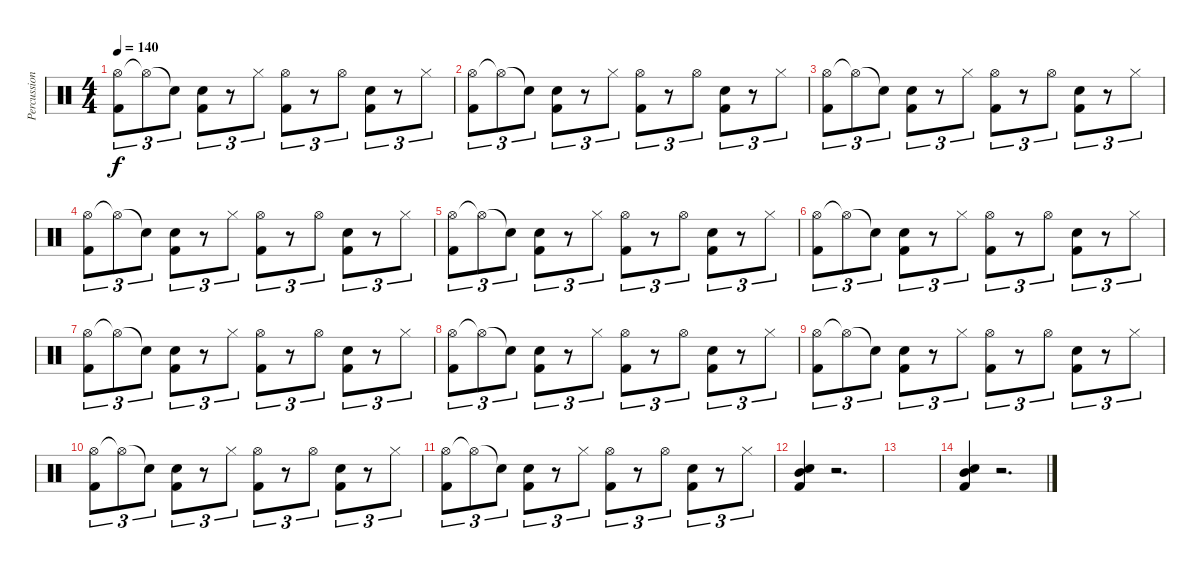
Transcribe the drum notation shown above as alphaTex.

\track ("Percussion" "Percussion") {instrument percussion}
\staff {score}
\articulation defaults
\ts (4 4)
\tempo 140
\clef neutral
\ks c
("Hi-Hat (open)" "Kick (hit) 2").8{tu (3 2) dy f} "Hi-Hat (open)"{t}.8{tu (3 2)} "Snare (hit)"{t}.8{tu (3 2)} ("Snare (hit) 2" "Kick (hit) 2").8{tu (3 2)} r.8{tu (3 2)} "Hi-Hat (closed)".8{tu (3 2)} ("Hi-Hat (open)" "Kick (hit) 2").8{tu (3 2)} r.8{tu (3 2)} "Hi-Hat (open)".8{tu (3 2)} ("Snare (hit) 2" "Kick (hit) 2").8{tu (3 2)} r.8{tu (3 2)} "Hi-Hat (closed)".8{tu (3 2)} |
("Hi-Hat (open)" "Kick (hit) 2").8{tu (3 2)} "Hi-Hat (open)"{t}.8{tu (3 2)} "Snare (hit)"{t}.8{tu (3 2)} ("Snare (hit) 2" "Kick (hit) 2").8{tu (3 2)} r.8{tu (3 2)} "Hi-Hat (closed)".8{tu (3 2)} ("Hi-Hat (open)" "Kick (hit) 2").8{tu (3 2)} r.8{tu (3 2)} "Hi-Hat (open)".8{tu (3 2)} ("Snare (hit) 2" "Kick (hit) 2").8{tu (3 2)} r.8{tu (3 2)} "Hi-Hat (closed)".8{tu (3 2)} |
("Hi-Hat (open)" "Kick (hit) 2").8{tu (3 2)} "Hi-Hat (open)"{t}.8{tu (3 2)} "Snare (hit)"{t}.8{tu (3 2)} ("Snare (hit) 2" "Kick (hit) 2").8{tu (3 2)} r.8{tu (3 2)} "Hi-Hat (closed)".8{tu (3 2)} ("Hi-Hat (open)" "Kick (hit) 2").8{tu (3 2)} r.8{tu (3 2)} "Hi-Hat (open)".8{tu (3 2)} ("Snare (hit) 2" "Kick (hit) 2").8{tu (3 2)} r.8{tu (3 2)} "Hi-Hat (closed)".8{tu (3 2)} |
("Hi-Hat (open)" "Kick (hit) 2").8{tu (3 2)} "Hi-Hat (open)"{t}.8{tu (3 2)} "Snare (hit)"{t}.8{tu (3 2)} ("Snare (hit) 2" "Kick (hit) 2").8{tu (3 2)} r.8{tu (3 2)} "Hi-Hat (closed)".8{tu (3 2)} ("Hi-Hat (open)" "Kick (hit) 2").8{tu (3 2)} r.8{tu (3 2)} "Hi-Hat (open)".8{tu (3 2)} ("Snare (hit) 2" "Kick (hit) 2").8{tu (3 2)} r.8{tu (3 2)} "Hi-Hat (closed)".8{tu (3 2)} |
("Hi-Hat (open)" "Kick (hit) 2").8{tu (3 2)} "Hi-Hat (open)"{t}.8{tu (3 2)} "Snare (hit)"{t}.8{tu (3 2)} ("Snare (hit) 2" "Kick (hit) 2").8{tu (3 2)} r.8{tu (3 2)} "Hi-Hat (closed)".8{tu (3 2)} ("Hi-Hat (open)" "Kick (hit) 2").8{tu (3 2)} r.8{tu (3 2)} "Hi-Hat (open)".8{tu (3 2)} ("Snare (hit) 2" "Kick (hit) 2").8{tu (3 2)} r.8{tu (3 2)} "Hi-Hat (closed)".8{tu (3 2)} |
("Hi-Hat (open)" "Kick (hit) 2").8{tu (3 2)} "Hi-Hat (open)"{t}.8{tu (3 2)} "Snare (hit)"{t}.8{tu (3 2)} ("Snare (hit) 2" "Kick (hit) 2").8{tu (3 2)} r.8{tu (3 2)} "Hi-Hat (closed)".8{tu (3 2)} ("Hi-Hat (open)" "Kick (hit) 2").8{tu (3 2)} r.8{tu (3 2)} "Hi-Hat (open)".8{tu (3 2)} ("Snare (hit) 2" "Kick (hit) 2").8{tu (3 2)} r.8{tu (3 2)} "Hi-Hat (closed)".8{tu (3 2)} |
("Hi-Hat (open)" "Kick (hit) 2").8{tu (3 2)} "Hi-Hat (open)"{t}.8{tu (3 2)} "Snare (hit)"{t}.8{tu (3 2)} ("Snare (hit) 2" "Kick (hit) 2").8{tu (3 2)} r.8{tu (3 2)} "Hi-Hat (closed)".8{tu (3 2)} ("Hi-Hat (open)" "Kick (hit) 2").8{tu (3 2)} r.8{tu (3 2)} "Hi-Hat (open)".8{tu (3 2)} ("Snare (hit) 2" "Kick (hit) 2").8{tu (3 2)} r.8{tu (3 2)} "Hi-Hat (closed)".8{tu (3 2)} |
("Hi-Hat (open)" "Kick (hit) 2").8{tu (3 2)} "Hi-Hat (open)"{t}.8{tu (3 2)} "Snare (hit)"{t}.8{tu (3 2)} ("Snare (hit) 2" "Kick (hit) 2").8{tu (3 2)} r.8{tu (3 2)} "Hi-Hat (closed)".8{tu (3 2)} ("Hi-Hat (open)" "Kick (hit) 2").8{tu (3 2)} r.8{tu (3 2)} "Hi-Hat (open)".8{tu (3 2)} ("Snare (hit) 2" "Kick (hit) 2").8{tu (3 2)} r.8{tu (3 2)} "Hi-Hat (closed)".8{tu (3 2)} |
("Hi-Hat (open)" "Kick (hit) 2").8{tu (3 2)} "Hi-Hat (open)"{t}.8{tu (3 2)} "Snare (hit)"{t}.8{tu (3 2)} ("Snare (hit) 2" "Kick (hit) 2").8{tu (3 2)} r.8{tu (3 2)} "Hi-Hat (closed)".8{tu (3 2)} ("Hi-Hat (open)" "Kick (hit) 2").8{tu (3 2)} r.8{tu (3 2)} "Hi-Hat (open)".8{tu (3 2)} ("Snare (hit) 2" "Kick (hit) 2").8{tu (3 2)} r.8{tu (3 2)} "Hi-Hat (closed)".8{tu (3 2)} |
("Hi-Hat (open)" "Kick (hit) 2").8{tu (3 2)} "Hi-Hat (open)"{t}.8{tu (3 2)} "Snare (hit)"{t}.8{tu (3 2)} ("Snare (hit) 2" "Kick (hit) 2").8{tu (3 2)} r.8{tu (3 2)} "Hi-Hat (closed)".8{tu (3 2)} ("Hi-Hat (open)" "Kick (hit) 2").8{tu (3 2)} r.8{tu (3 2)} "Hi-Hat (open)".8{tu (3 2)} ("Snare (hit) 2" "Kick (hit) 2").8{tu (3 2)} r.8{tu (3 2)} "Hi-Hat (closed)".8{tu (3 2)} |
("Hi-Hat (open)" "Kick (hit) 2").8{tu (3 2)} "Hi-Hat (open)"{t}.8{tu (3 2)} "Snare (hit)"{t}.8{tu (3 2)} ("Snare (hit) 2" "Kick (hit) 2").8{tu (3 2)} r.8{tu (3 2)} "Hi-Hat (closed)".8{tu (3 2)} ("Hi-Hat (open)" "Kick (hit) 2").8{tu (3 2)} r.8{tu (3 2)} "Hi-Hat (open)".8{tu (3 2)} ("Snare (hit) 2" "Kick (hit) 2").8{tu (3 2)} r.8{tu (3 2)} "Hi-Hat (closed)".8{tu (3 2)} |
("Mid Tom (hit)" "Snare (hit) 2" "Kick (hit) 2").4 r.2{d} |
|
("Mid Tom (hit)" "Snare (hit) 2" "Kick (hit) 2").4 r.2{d}
